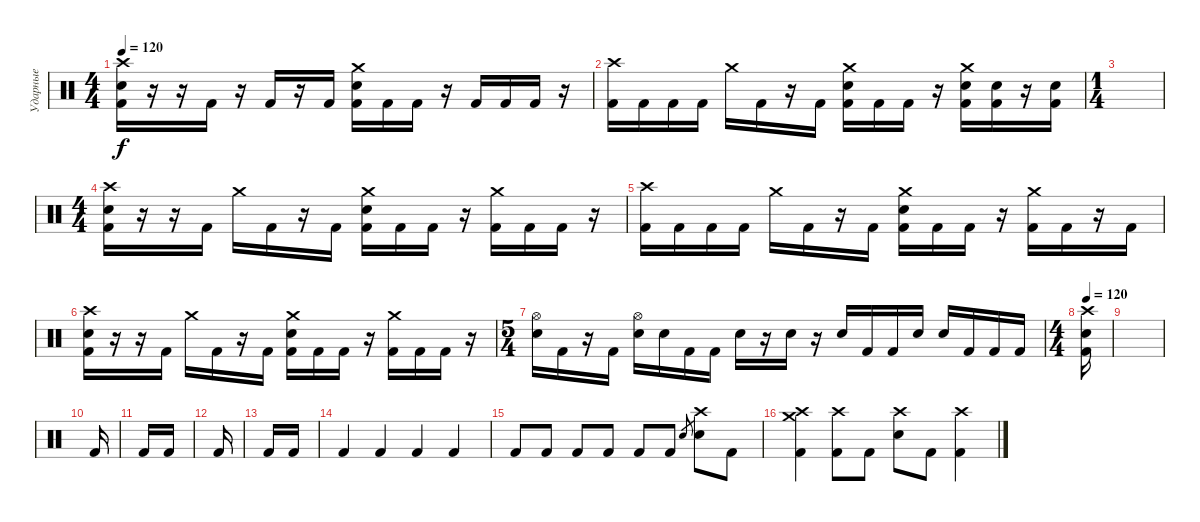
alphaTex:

\track ("Ударные" "Ударные") {instrument percussion}
\staff {score}
\articulation defaults
\ts (4 4)
\tempo 120
\clef neutral
\ks c
("Crash high (hit)" "Electric Snare (hit)" "Kick (hit) 2").16{dy f} r.16 r.16 "Kick (hit) 2".16 r.16 "Kick (hit) 2".16 r.16 "Kick (hit) 2".16 ("Crash medium (hit)" "Electric Snare (hit)" "Kick (hit) 2").16 "Kick (hit) 2".16 "Kick (hit) 2".16 r.16 "Kick (hit) 2".16 "Kick (hit) 2".16 "Kick (hit) 2".16 r.16 |
("Crash high (hit)" "Kick (hit) 2").16 "Kick (hit) 2".16 "Kick (hit) 2".16 "Kick (hit) 2".16 "Crash medium (hit)".16 "Kick (hit) 2".16 r.16 "Kick (hit) 2".16 ("Crash medium (hit)" "Electric Snare (hit)" "Kick (hit) 2").16 "Kick (hit) 2".16 "Kick (hit) 2".16 r.16 ("Crash medium (hit)" "Electric Snare (hit)" "Kick (hit) 2").16 ("Electric Snare (hit)" "Kick (hit) 2").16 r.16 ("Electric Snare (hit)" "Kick (hit) 2").16 |
\ts (1 4)
|
\ts (4 4)
("Crash high (hit)" "Electric Snare (hit)" "Kick (hit) 2").16 r.16 r.16 "Kick (hit) 2".16 "Crash medium (hit)".16 "Kick (hit) 2".16 r.16 "Kick (hit) 2".16 ("Crash medium (hit)" "Electric Snare (hit)" "Kick (hit) 2").16 "Kick (hit) 2".16 "Kick (hit) 2".16 r.16 ("Crash medium (hit)" "Kick (hit) 2").16 "Kick (hit) 2".16 "Kick (hit) 2".16 r.16 |
("Crash high (hit)" "Kick (hit) 2").16 "Kick (hit) 2".16 "Kick (hit) 2".16 "Kick (hit) 2".16 "Crash medium (hit)".16 "Kick (hit) 2".16 r.16 "Kick (hit) 2".16 ("Crash medium (hit)" "Electric Snare (hit)" "Kick (hit) 2").16 "Kick (hit) 2".16 "Kick (hit) 2".16 r.16 ("Crash medium (hit)" "Kick (hit) 2").16 "Kick (hit) 2".16 r.16 "Kick (hit) 2".16 |
("Crash high (hit)" "Electric Snare (hit)" "Kick (hit) 2").16 r.16 r.16 "Kick (hit) 2".16 "Crash medium (hit)".16 "Kick (hit) 2".16 r.16 "Kick (hit) 2".16 ("Crash medium (hit)" "Electric Snare (hit)" "Kick (hit) 2").16 "Kick (hit) 2".16 "Kick (hit) 2".16 r.16 ("Crash medium (hit)" "Kick (hit) 2").16 "Kick (hit) 2".16 "Kick (hit) 2".16 r.16 |
\ts (5 4)
("Hi-Hat (open)" "Electric Snare (hit)").16 "Kick (hit) 2".16 r.16 "Kick (hit) 2".16 ("Hi-Hat (open)" "Electric Snare (hit)").16 "Electric Snare (hit)".16 "Kick (hit) 2".16 "Kick (hit) 2".16 "Electric Snare (hit)".16 r.16 "Electric Snare (hit)".16 r.16 "Electric Snare (hit)".16 "Kick (hit) 2".16 "Kick (hit) 2".16 "Electric Snare (hit)".16 "Electric Snare (hit)".16 "Kick (hit) 2".16 "Kick (hit) 2".16 "Kick (hit) 2".16 |
\ts (4 4)
\tempo 120
("Electric Snare (hit)" "Kick (hit) 2" "Crash high (hit)").16 |
|
"Kick (hit) 2".16 |
"Kick (hit) 2".16 "Kick (hit) 2".16 |
"Kick (hit) 2".16 |
"Kick (hit) 2".16 "Kick (hit) 2".16 |
"Kick (hit) 2".4 "Kick (hit) 2".4 "Kick (hit) 2".4 "Kick (hit) 2".4 |
"Kick (hit) 2".8 "Kick (hit) 2".8 "Kick (hit) 2".8 "Kick (hit) 2".8 "Kick (hit) 2".8 "Kick (hit) 2".8 "Electric Snare (hit)".8{gr} ("Crash high (hit)" "Electric Snare (hit)").8 "Kick (hit) 2".8 |
("Crash medium (hit)" "Crash high (hit)" "Kick (hit) 2").4 ("Crash high (hit)" "Kick (hit) 2").8 "Kick (hit) 2".8 ("Crash high (hit)" "Electric Snare (hit)").8 "Kick (hit) 2".8 ("Crash high (hit)" "Kick (hit) 2").4
